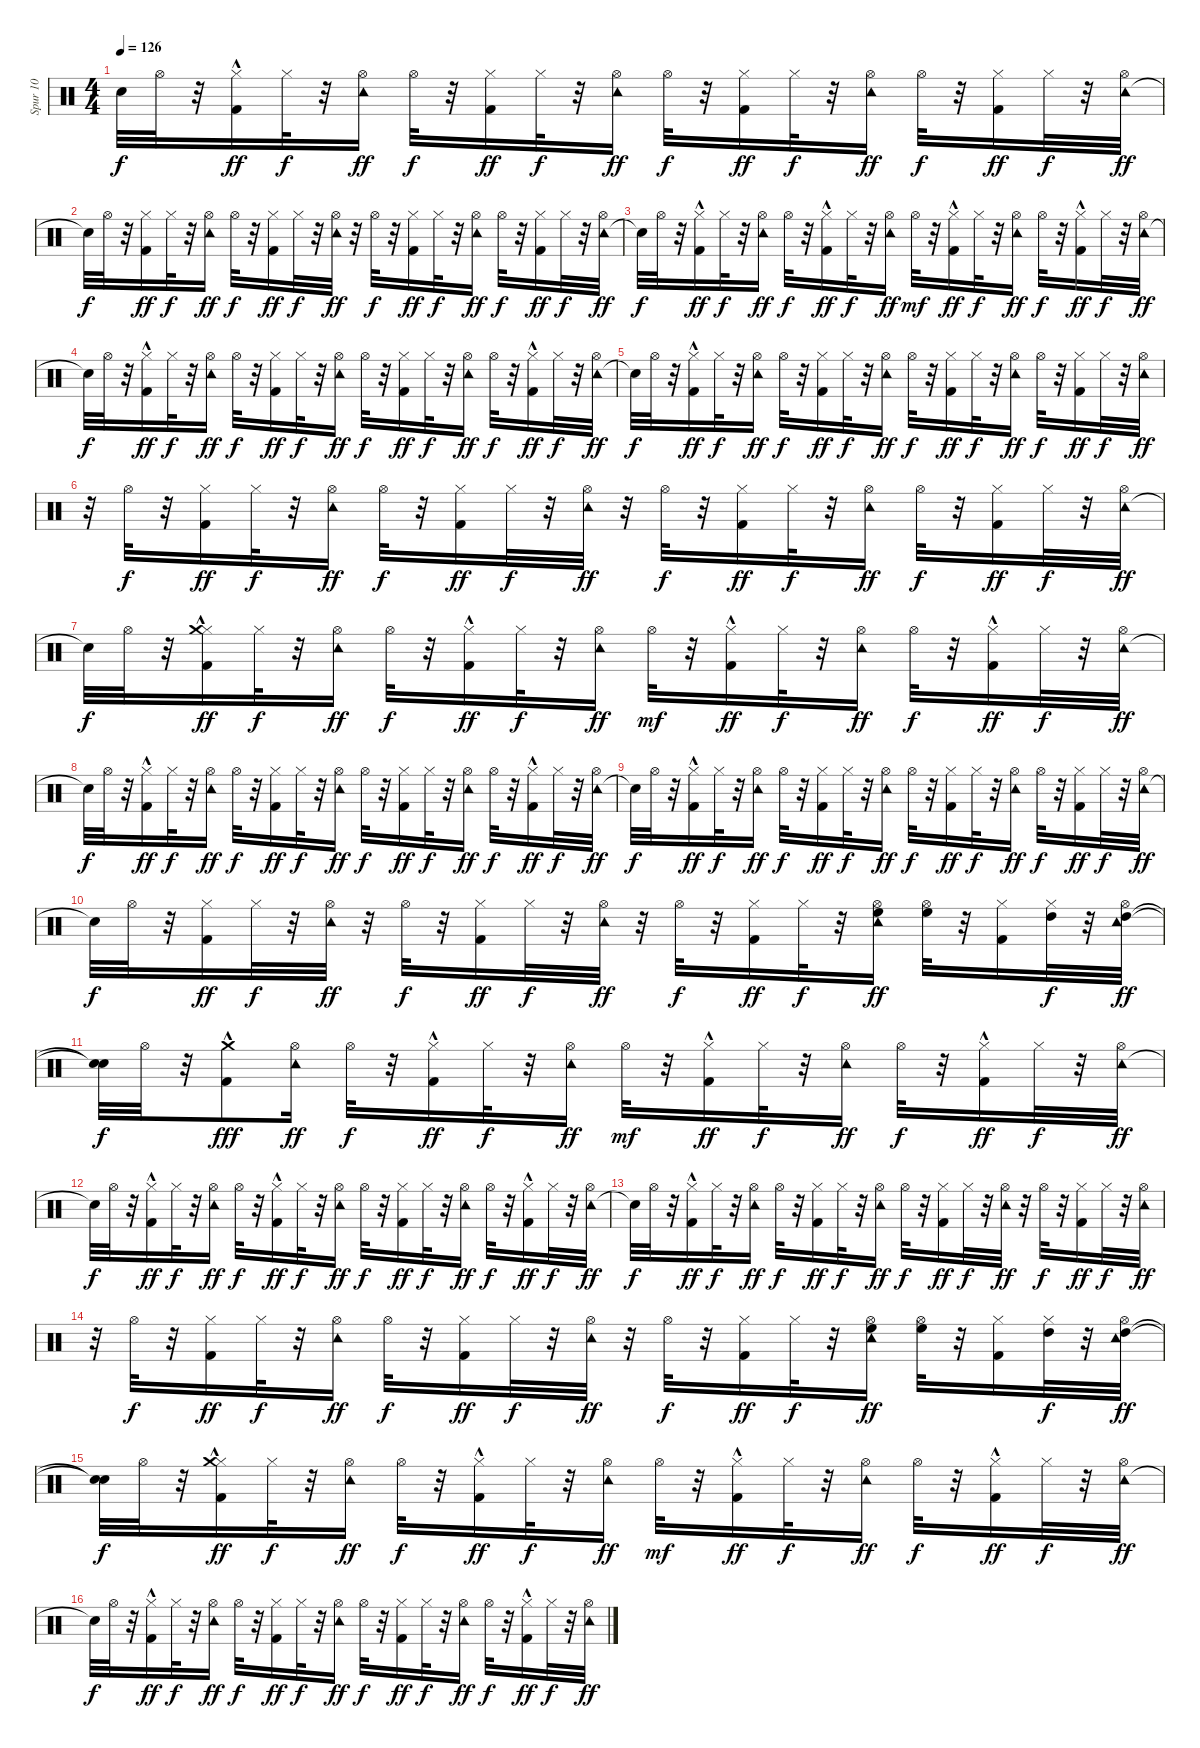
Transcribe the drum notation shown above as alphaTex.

\track ("Spur 10" "Spur 10") {instrument percussion}
\staff {score}
\articulation defaults
\ts (4 4)
\tempo 126
\clef neutral
\ks c "Snare (hit)"{t}.32{dy f} "Hi-Hat (open)".32
r.32 ("Kick (hit) 2"{hac} "Hi-Hat (closed)").16{dy ff} "Hi-Hat (closed)".32{dy f} r.32 ("Tambourine (hit)" "Hi-Hat (open)").16{dy ff} "Hi-Hat (open)".32{dy f} r.32 ("Kick (hit) 2" "Hi-Hat (closed)").16{dy ff} "Hi-Hat (closed)".32{dy f} r.32 ("Tambourine (hit)" "Hi-Hat (open)").16{dy ff} "Hi-Hat (open)".32{dy f} r.32 ("Kick (hit) 2" "Hi-Hat (closed)").16{dy ff} "Hi-Hat (closed)".32{dy f} r.32 ("Tambourine (hit)" "Hi-Hat (open)").16{dy ff} "Hi-Hat (open)".32{dy f} r.32 ("Kick (hit) 2" "Hi-Hat (closed)").16{dy ff} "Hi-Hat (closed)".32{dy f} r.32 ("Tambourine (hit)" "Hi-Hat (open)").32{dy ff} |
"Snare (hit)"{t}.32{dy f} "Hi-Hat (open)".32 r.32 ("Kick (hit) 2" "Hi-Hat (closed)").16{dy ff} "Hi-Hat (closed)".32{dy f} r.32 ("Tambourine (hit)" "Hi-Hat (open)").16{dy ff} "Hi-Hat (open)".32{dy f} r.32 ("Kick (hit) 2" "Hi-Hat (closed)").16{dy ff} "Hi-Hat (closed)".32{dy f} r.32 ("Tambourine (hit)" "Hi-Hat (open)").32{dy ff} r.32 "Hi-Hat (open)".32{dy f} r.32 ("Kick (hit) 2" "Hi-Hat (closed)").16{dy ff} "Hi-Hat (closed)".32{dy f} r.32 ("Tambourine (hit)" "Hi-Hat (open)").16{dy ff} "Hi-Hat (open)".32{dy f} r.32 ("Kick (hit) 2" "Hi-Hat (closed)").16{dy ff} "Hi-Hat (closed)".32{dy f} r.32 ("Tambourine (hit)" "Hi-Hat (open)").32{dy ff} |
"Snare (hit)"{t}.32{dy f} "Hi-Hat (open)".32 r.32 ("Kick (hit) 2"{hac} "Hi-Hat (closed)").16{dy ff} "Hi-Hat (closed)".32{dy f} r.32 ("Tambourine (hit)" "Hi-Hat (open)").16{dy ff} "Hi-Hat (open)".32{dy f} r.32 ("Kick (hit) 2"{hac} "Hi-Hat (closed)").16{dy ff} "Hi-Hat (closed)".32{dy f} r.32 ("Tambourine (hit)" "Hi-Hat (open)").16{dy ff} "Hi-Hat (open)".32{dy mf} r.32 ("Kick (hit) 2"{hac} "Hi-Hat (closed)").16{dy ff} "Hi-Hat (closed)".32{dy f} r.32 ("Tambourine (hit)" "Hi-Hat (open)").16{dy ff} "Hi-Hat (open)".32{dy f} r.32 ("Kick (hit) 2"{hac} "Hi-Hat (closed)").16{dy ff} "Hi-Hat (closed)".32{dy f} r.32 ("Tambourine (hit)" "Hi-Hat (open)").32{dy ff} |
"Snare (hit)"{t}.32{dy f} "Hi-Hat (open)".32 r.32 ("Kick (hit) 2"{hac} "Hi-Hat (closed)").16{dy ff} "Hi-Hat (closed)".32{dy f} r.32 ("Tambourine (hit)" "Hi-Hat (open)").16{dy ff} "Hi-Hat (open)".32{dy f} r.32 ("Kick (hit) 2" "Hi-Hat (closed)").16{dy ff} "Hi-Hat (closed)".32{dy f} r.32 ("Tambourine (hit)" "Hi-Hat (open)").16{dy ff} "Hi-Hat (open)".32{dy f} r.32 ("Kick (hit) 2" "Hi-Hat (closed)").16{dy ff} "Hi-Hat (closed)".32{dy f} r.32 ("Tambourine (hit)" "Hi-Hat (open)").16{dy ff} "Hi-Hat (open)".32{dy f} r.32 ("Kick (hit) 2"{hac} "Hi-Hat (closed)").16{dy ff} "Hi-Hat (closed)".32{dy f} r.32 ("Tambourine (hit)" "Hi-Hat (open)").32{dy ff} |
"Snare (hit)"{t}.32{dy f} "Hi-Hat (open)".32 r.32 ("Kick (hit) 2"{hac} "Hi-Hat (closed)").16{dy ff} "Hi-Hat (closed)".32{dy f} r.32 ("Tambourine (hit)" "Hi-Hat (open)").16{dy ff} "Hi-Hat (open)".32{dy f} r.32 ("Kick (hit) 2" "Hi-Hat (closed)").16{dy ff} "Hi-Hat (closed)".32{dy f} r.32 ("Tambourine (hit)" "Hi-Hat (open)").16{dy ff} "Hi-Hat (open)".32{dy f} r.32 ("Kick (hit) 2" "Hi-Hat (closed)").16{dy ff} "Hi-Hat (closed)".32{dy f} r.32 ("Tambourine (hit)" "Hi-Hat (open)").16{dy ff} "Hi-Hat (open)".32{dy f} r.32 ("Kick (hit) 2" "Hi-Hat (closed)").16{dy ff} "Hi-Hat (closed)".32{dy f} r.32 ("Tambourine (hit)" "Hi-Hat (open)").32{dy ff} |
r.32 "Hi-Hat (open)".32{dy f} r.32 ("Kick (hit) 2" "Hi-Hat (closed)").16{dy ff} "Hi-Hat (closed)".32{dy f} r.32 ("Tambourine (hit)" "Hi-Hat (open)").16{dy ff} "Hi-Hat (open)".32{dy f} r.32 ("Kick (hit) 2" "Hi-Hat (closed)").16{dy ff} "Hi-Hat (closed)".32{dy f} r.32 ("Tambourine (hit)" "Hi-Hat (open)").32{dy ff} r.32 "Hi-Hat (open)".32{dy f} r.32 ("Kick (hit) 2" "Hi-Hat (closed)").16{dy ff} "Hi-Hat (closed)".32{dy f} r.32 ("Tambourine (hit)" "Hi-Hat (open)").16{dy ff} "Hi-Hat (open)".32{dy f} r.32 ("Kick (hit) 2" "Hi-Hat (closed)").16{dy ff} "Hi-Hat (closed)".32{dy f} r.32 ("Tambourine (hit)" "Hi-Hat (open)").32{dy ff} |
"Snare (hit)"{t}.32{dy f} "Hi-Hat (open)".32 r.32 ("Kick (hit) 2"{hac} "Hi-Hat (closed)" "Crash medium (hit)").16{dy ff} "Hi-Hat (closed)".32{dy f} r.32 ("Tambourine (hit)" "Hi-Hat (open)").16{dy ff} "Hi-Hat (open)".32{dy f} r.32 ("Kick (hit) 2"{hac} "Hi-Hat (closed)").16{dy ff} "Hi-Hat (closed)".32{dy f} r.32 ("Tambourine (hit)" "Hi-Hat (open)").16{dy ff} "Hi-Hat (open)".32{dy mf} r.32 ("Kick (hit) 2"{hac} "Hi-Hat (closed)").16{dy ff} "Hi-Hat (closed)".32{dy f} r.32 ("Tambourine (hit)" "Hi-Hat (open)").16{dy ff} "Hi-Hat (open)".32{dy f} r.32 ("Kick (hit) 2"{hac} "Hi-Hat (closed)").16{dy ff} "Hi-Hat (closed)".32{dy f} r.32 ("Tambourine (hit)" "Hi-Hat (open)").32{dy ff} |
"Snare (hit)"{t}.32{dy f} "Hi-Hat (open)".32 r.32 ("Kick (hit) 2"{hac} "Hi-Hat (closed)").16{dy ff} "Hi-Hat (closed)".32{dy f} r.32 ("Tambourine (hit)" "Hi-Hat (open)").16{dy ff} "Hi-Hat (open)".32{dy f} r.32 ("Kick (hit) 2" "Hi-Hat (closed)").16{dy ff} "Hi-Hat (closed)".32{dy f} r.32 ("Tambourine (hit)" "Hi-Hat (open)").16{dy ff} "Hi-Hat (open)".32{dy f} r.32 ("Kick (hit) 2" "Hi-Hat (closed)").16{dy ff} "Hi-Hat (closed)".32{dy f} r.32 ("Tambourine (hit)" "Hi-Hat (open)").16{dy ff} "Hi-Hat (open)".32{dy f} r.32 ("Kick (hit) 2"{hac} "Hi-Hat (closed)").16{dy ff} "Hi-Hat (closed)".32{dy f} r.32 ("Tambourine (hit)" "Hi-Hat (open)").32{dy ff} |
"Snare (hit)"{t}.32{dy f} "Hi-Hat (open)".32 r.32 ("Kick (hit) 2"{hac} "Hi-Hat (closed)").16{dy ff} "Hi-Hat (closed)".32{dy f} r.32 ("Tambourine (hit)" "Hi-Hat (open)").16{dy ff} "Hi-Hat (open)".32{dy f} r.32 ("Kick (hit) 2" "Hi-Hat (closed)").16{dy ff} "Hi-Hat (closed)".32{dy f} r.32 ("Tambourine (hit)" "Hi-Hat (open)").16{dy ff} "Hi-Hat (open)".32{dy f} r.32 ("Kick (hit) 2" "Hi-Hat (closed)").16{dy ff} "Hi-Hat (closed)".32{dy f} r.32 ("Tambourine (hit)" "Hi-Hat (open)").16{dy ff} "Hi-Hat (open)".32{dy f} r.32 ("Kick (hit) 2" "Hi-Hat (closed)").16{dy ff} "Hi-Hat (closed)".32{dy f} r.32 ("Tambourine (hit)" "Hi-Hat (open)").32{dy ff} |
"Snare (hit)"{t}.32{dy f} "Hi-Hat (open)".32 r.32 ("Kick (hit) 2" "Hi-Hat (closed)").16{dy ff} "Hi-Hat (closed)".32{dy f} r.32 ("Tambourine (hit)" "Hi-Hat (open)").32{dy ff} r.32 "Hi-Hat (open)".32{dy f} r.32 ("Kick (hit) 2" "Hi-Hat (closed)").16{dy ff} "Hi-Hat (closed)".32{dy f} r.32 ("Tambourine (hit)" "Hi-Hat (open)").32{dy ff} r.32 "Hi-Hat (open)".32{dy f} r.32 ("Kick (hit) 2" "Hi-Hat (closed)").16{dy ff} "Hi-Hat (closed)".32{dy f} r.32 ("High Floor Tom (hit)" "Tambourine (hit)" "Hi-Hat (open)").16{dy ff} ("High Floor Tom (hit)" "Hi-Hat (open)").32 r.32 ("Kick (hit) 2" "Hi-Hat (closed)").16 ("High Tom (hit)" "Hi-Hat (closed)").32{dy f} r.32 ("High Tom (hit)" "Tambourine (hit)" "Hi-Hat (open)").32{dy ff} |
("Snare (hit)"{t} "Snare (hit)"{t}).32{dy f} "Hi-Hat (open)".32 r.32 ("Kick (hit) 2"{hac} "Crash medium (hit)").8{dy fff} ("Tambourine (hit)" "Hi-Hat (open)").16{dy ff} "Hi-Hat (open)".32{dy f} r.32 ("Kick (hit) 2"{hac} "Hi-Hat (closed)").16{dy ff} "Hi-Hat (closed)".32{dy f} r.32 ("Tambourine (hit)" "Hi-Hat (open)").16{dy ff} "Hi-Hat (open)".32{dy mf} r.32 ("Kick (hit) 2"{hac} "Hi-Hat (closed)").16{dy ff} "Hi-Hat (closed)".32{dy f} r.32 ("Tambourine (hit)" "Hi-Hat (open)").16{dy ff} "Hi-Hat (open)".32{dy f} r.32 ("Kick (hit) 2"{hac} "Hi-Hat (closed)").16{dy ff} "Hi-Hat (closed)".32{dy f} r.32 ("Tambourine (hit)" "Hi-Hat (open)").32{dy ff} |
"Snare (hit)"{t}.32{dy f} "Hi-Hat (open)".32 r.32 ("Kick (hit) 2"{hac} "Hi-Hat (closed)").16{dy ff} "Hi-Hat (closed)".32{dy f} r.32 ("Tambourine (hit)" "Hi-Hat (open)").16{dy ff} "Hi-Hat (open)".32{dy f} r.32 ("Kick (hit) 2"{hac} "Hi-Hat (closed)").16{dy ff} "Hi-Hat (closed)".32{dy f} r.32 ("Tambourine (hit)" "Hi-Hat (open)").16{dy ff} "Hi-Hat (open)".32{dy f} r.32 ("Kick (hit) 2" "Hi-Hat (closed)").16{dy ff} "Hi-Hat (closed)".32{dy f} r.32 ("Tambourine (hit)" "Hi-Hat (open)").16{dy ff} "Hi-Hat (open)".32{dy f} r.32 ("Kick (hit) 2"{hac} "Hi-Hat (closed)").16{dy ff} "Hi-Hat (closed)".32{dy f} r.32 ("Tambourine (hit)" "Hi-Hat (open)").32{dy ff} |
"Snare (hit)"{t}.32{dy f} "Hi-Hat (open)".32 r.32 ("Kick (hit) 2"{hac} "Hi-Hat (closed)").16{dy ff} "Hi-Hat (closed)".32{dy f} r.32 ("Tambourine (hit)" "Hi-Hat (open)").16{dy ff} "Hi-Hat (open)".32{dy f} r.32 ("Kick (hit) 2" "Hi-Hat (closed)").16{dy ff} "Hi-Hat (closed)".32{dy f} r.32 ("Tambourine (hit)" "Hi-Hat (open)").16{dy ff} "Hi-Hat (open)".32{dy f} r.32 ("Kick (hit) 2" "Hi-Hat (closed)").16{dy ff} "Hi-Hat (closed)".32{dy f} r.32 ("Tambourine (hit)" "Hi-Hat (open)").32{dy ff} r.32 "Hi-Hat (open)".32{dy f} r.32 ("Kick (hit) 2" "Hi-Hat (closed)").16{dy ff} "Hi-Hat (closed)".32{dy f} r.32 ("Tambourine (hit)" "Hi-Hat (open)").32{dy ff} |
r.32 "Hi-Hat (open)".32{dy f} r.32 ("Kick (hit) 2" "Hi-Hat (closed)").16{dy ff} "Hi-Hat (closed)".32{dy f} r.32 ("Tambourine (hit)" "Hi-Hat (open)").16{dy ff} "Hi-Hat (open)".32{dy f} r.32 ("Kick (hit) 2" "Hi-Hat (closed)").16{dy ff} "Hi-Hat (closed)".32{dy f} r.32 ("Tambourine (hit)" "Hi-Hat (open)").32{dy ff} r.32 "Hi-Hat (open)".32{dy f} r.32 ("Kick (hit) 2" "Hi-Hat (closed)").16{dy ff} "Hi-Hat (closed)".32{dy f} r.32 ("High Floor Tom (hit)" "Tambourine (hit)" "Hi-Hat (open)").16{dy ff} ("High Floor Tom (hit)" "Hi-Hat (open)").32 r.32 ("Kick (hit) 2" "Hi-Hat (closed)").16 ("High Tom (hit)" "Hi-Hat (closed)").32{dy f} r.32 ("High Tom (hit)" "Tambourine (hit)" "Hi-Hat (open)").32{dy ff} |
("Snare (hit)"{t} "Snare (hit)"{t}).32{dy f} "Hi-Hat (open)".32 r.32 ("Kick (hit) 2"{hac} "Hi-Hat (closed)" "Crash medium (hit)").16{dy ff} "Hi-Hat (closed)".32{dy f} r.32 ("Tambourine (hit)" "Hi-Hat (open)").16{dy ff} "Hi-Hat (open)".32{dy f} r.32 ("Kick (hit) 2"{hac} "Hi-Hat (closed)").16{dy ff} "Hi-Hat (closed)".32{dy f} r.32 ("Tambourine (hit)" "Hi-Hat (open)").16{dy ff} "Hi-Hat (open)".32{dy mf} r.32 ("Kick (hit) 2"{hac} "Hi-Hat (closed)").16{dy ff} "Hi-Hat (closed)".32{dy f} r.32 ("Tambourine (hit)" "Hi-Hat (open)").16{dy ff} "Hi-Hat (open)".32{dy f} r.32 ("Kick (hit) 2"{hac} "Hi-Hat (closed)").16{dy ff} "Hi-Hat (closed)".32{dy f} r.32 ("Tambourine (hit)" "Hi-Hat (open)").32{dy ff} |
"Snare (hit)"{t}.32{dy f} "Hi-Hat (open)".32 r.32 ("Kick (hit) 2"{hac} "Hi-Hat (closed)").16{dy ff} "Hi-Hat (closed)".32{dy f} r.32 ("Tambourine (hit)" "Hi-Hat (open)").16{dy ff} "Hi-Hat (open)".32{dy f} r.32 ("Kick (hit) 2" "Hi-Hat (closed)").16{dy ff} "Hi-Hat (closed)".32{dy f} r.32 ("Tambourine (hit)" "Hi-Hat (open)").16{dy ff} "Hi-Hat (open)".32{dy f} r.32 ("Kick (hit) 2" "Hi-Hat (closed)").16{dy ff} "Hi-Hat (closed)".32{dy f} r.32 ("Tambourine (hit)" "Hi-Hat (open)").16{dy ff} "Hi-Hat (open)".32{dy f} r.32 ("Kick (hit) 2"{hac} "Hi-Hat (closed)").16{dy ff} "Hi-Hat (closed)".32{dy f} r.32 ("Tambourine (hit)" "Hi-Hat (open)").32{dy ff}
